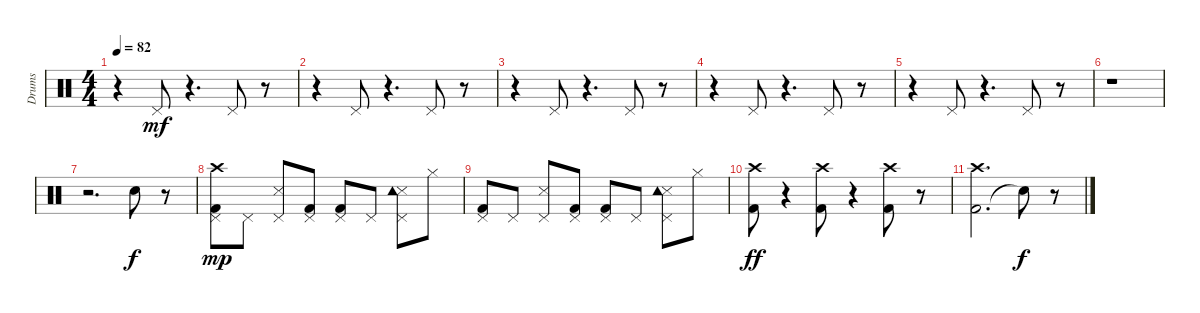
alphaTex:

\track ("Drums" "Drums") {instrument percussion}
\staff {score}
\articulation defaults
\ts (4 4)
\tempo 82
\clef neutral
\ks c
r.4{dy mf} "Pedal Hi-Hat (hit)".8 r.4{d} "Pedal Hi-Hat (hit)".8 r.8 |
r.4 "Pedal Hi-Hat (hit)".8 r.4{d} "Pedal Hi-Hat (hit)".8 r.8 |
r.4 "Pedal Hi-Hat (hit)".8 r.4{d} "Pedal Hi-Hat (hit)".8 r.8 |
r.4 "Pedal Hi-Hat (hit)".8 r.4{d} "Pedal Hi-Hat (hit)".8 r.8 |
r.4 "Pedal Hi-Hat (hit)".8 r.4{d} "Pedal Hi-Hat (hit)".8 r.8 |
r.1 |
r.2{d} "Snare (hit) 2".8{dy f} r.8 |
("Kick (hit) 2" "Crash high (hit)" "Pedal Hi-Hat (hit)").8{dy mp} "Pedal Hi-Hat (hit)".8 ("Snare (side stick) 3" "Pedal Hi-Hat (hit)").8 ("Kick (hit) 2" "Pedal Hi-Hat (hit)").8 ("Kick (hit) 2" "Pedal Hi-Hat (hit)").8 "Pedal Hi-Hat (hit)".8 ("Snare (side stick) 3" "Tambourine (hit)" "Pedal Hi-Hat (hit)").8 "Hi-Hat (closed)".8 |
("Kick (hit) 2" "Pedal Hi-Hat (hit)").8 "Pedal Hi-Hat (hit)".8 ("Snare (side stick) 3" "Pedal Hi-Hat (hit)").8 ("Kick (hit) 2" "Pedal Hi-Hat (hit)").8 ("Kick (hit) 2" "Pedal Hi-Hat (hit)").8 "Pedal Hi-Hat (hit)".8 ("Snare (side stick) 3" "Tambourine (hit)" "Pedal Hi-Hat (hit)").8 "Hi-Hat (closed)".8 |
("Kick (hit) 2" "Crash high (hit)").8{dy ff} r.4 ("Kick (hit) 2" "Crash high (hit)").8 r.4 ("Kick (hit) 2" "Crash high (hit)").8 r.8 |
("Kick (hit) 2" "Crash high (hit)").2{d} "Snare (hit)"{t}.8{dy f} r.8
